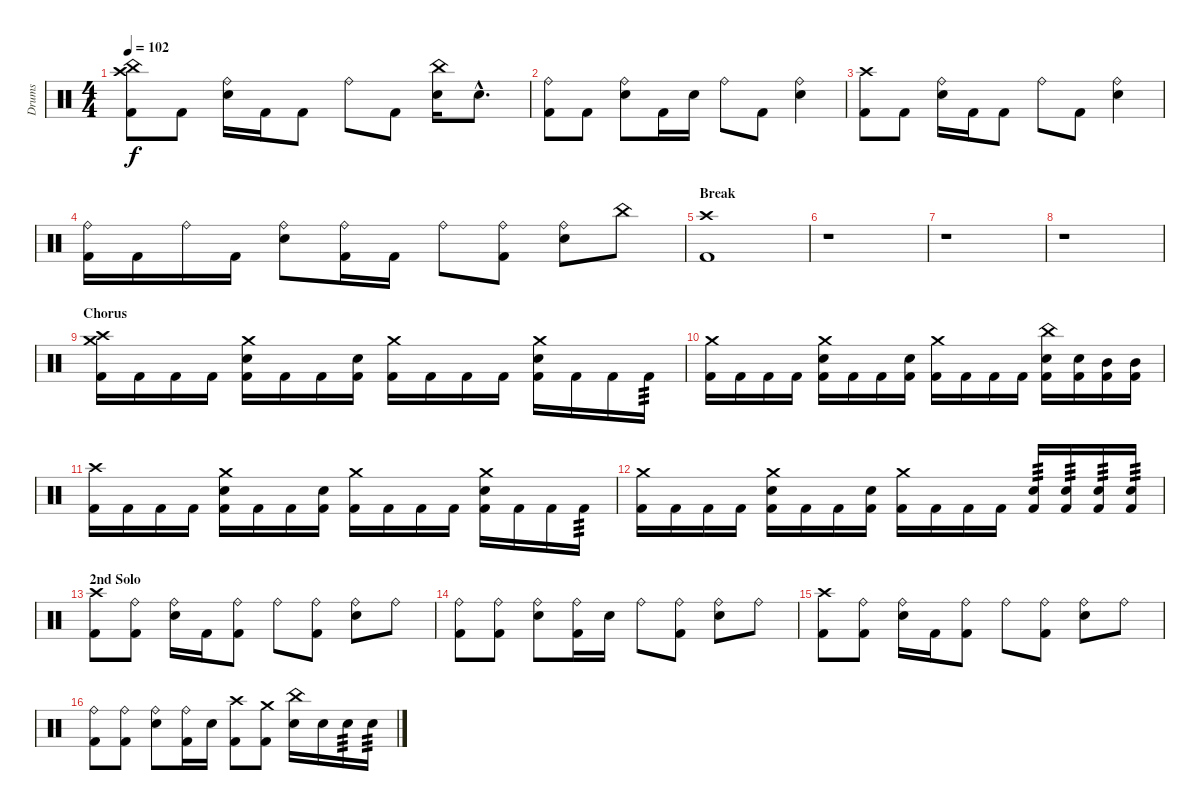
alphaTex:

\track ("Drums" "Drums") {instrument percussion}
\staff {score}
\articulation defaults
\ts (4 4)
\tempo 102
\clef neutral
\ks c
("Crash high (hit)" "China (hit)" "Kick (hit) 2").8{dy f} "Kick (hit) 2".8 ("Ride (bell)" "Snare (hit) 2").16 "Kick (hit) 2".16 "Kick (hit) 2".8 "Ride (bell)".8 "Kick (hit) 2".8 ("China (hit)" "Snare (hit) 2").16 "Snare (hit) 2"{hac}.8{d} |
("Ride (bell)" "Kick (hit) 2").8 "Kick (hit) 2".8 ("Ride (bell)" "Snare (hit) 2").8 "Kick (hit) 2".16 "Snare (hit) 2".16 "Ride (bell)".8 "Kick (hit) 2".8 ("Ride (bell)" "Snare (hit) 2").4 |
("Crash high (hit)" "Kick (hit) 2").8 "Kick (hit) 2".8 ("Ride (bell)" "Snare (hit) 2").16 "Kick (hit) 2".16 "Kick (hit) 2".8 "Ride (bell)".8 "Kick (hit) 2".8 ("Ride (bell)" "Snare (hit) 2").4 |
("Ride (bell)" "Kick (hit) 2").16 "Kick (hit) 2".16 "Ride (bell)".16 "Kick (hit) 2".16 ("Ride (bell)" "Snare (hit) 2").8 ("Ride (bell)" "Kick (hit) 2").16 "Kick (hit) 2".16 "Ride (bell)".8 ("Ride (bell)" "Kick (hit) 2").8 ("Ride (bell)" "Snare (hit) 2").8 "China (hit)".8 |
\section ("" "Break")
("Crash high (hit)" "Kick (hit) 2").1 |
r.1 |
r.1 |
r.1 |
\section ("" "Chorus")
("Crash high (hit)" "Crash medium (hit)" "Kick (hit) 2").16 "Kick (hit) 2".16 "Kick (hit) 2".16 "Kick (hit) 2".16 ("Crash medium (hit)" "Snare (hit) 2" "Kick (hit) 2").16 "Kick (hit) 2".16 "Kick (hit) 2".16 ("Snare (hit) 2" "Kick (hit) 2").16 ("Crash medium (hit)" "Kick (hit) 2").16 "Kick (hit) 2".16 "Kick (hit) 2".16 "Kick (hit) 2".16 ("Crash medium (hit)" "Snare (hit) 2" "Kick (hit) 2").16 "Kick (hit) 2".16 "Kick (hit) 2".16 "Kick (hit) 2".16{tp 3} |
("Crash medium (hit)" "Kick (hit) 2").16 "Kick (hit) 2".16 "Kick (hit) 2".16 "Kick (hit) 2".16 ("Crash medium (hit)" "Snare (hit) 2" "Kick (hit) 2").16 "Kick (hit) 2".16 "Kick (hit) 2".16 ("Snare (hit) 2" "Kick (hit) 2").16 ("Crash medium (hit)" "Kick (hit) 2").16 "Kick (hit) 2".16 "Kick (hit) 2".16 "Kick (hit) 2".16 ("China (hit)" "Snare (hit) 2" "Kick (hit) 2").16 ("Snare (hit) 2" "Kick (hit) 2").16 ("Mid Tom (hit)" "Kick (hit) 2").16 ("Mid Tom (hit)" "Kick (hit) 2").16 |
("Crash high (hit)" "Kick (hit) 2").16 "Kick (hit) 2".16 "Kick (hit) 2".16 "Kick (hit) 2".16 ("Crash medium (hit)" "Snare (hit) 2" "Kick (hit) 2").16 "Kick (hit) 2".16 "Kick (hit) 2".16 ("Snare (hit) 2" "Kick (hit) 2").16 ("Crash medium (hit)" "Kick (hit) 2").16 "Kick (hit) 2".16 "Kick (hit) 2".16 "Kick (hit) 2".16 ("Crash medium (hit)" "Snare (hit) 2" "Kick (hit) 2").16 "Kick (hit) 2".16 "Kick (hit) 2".16 "Kick (hit) 2".16{tp 3} |
("Crash medium (hit)" "Kick (hit) 2").16 "Kick (hit) 2".16 "Kick (hit) 2".16 "Kick (hit) 2".16 ("Crash medium (hit)" "Snare (hit) 2" "Kick (hit) 2").16 "Kick (hit) 2".16 "Kick (hit) 2".16 ("Snare (hit) 2" "Kick (hit) 2").16 ("Crash medium (hit)" "Kick (hit) 2").16 "Kick (hit) 2".16 "Kick (hit) 2".16 "Kick (hit) 2".16 ("Snare (hit) 2" "Kick (hit) 2").16{tp 3} ("Snare (hit) 2" "Kick (hit) 2").16{tp 3} ("Snare (hit) 2" "Kick (hit) 2").16{tp 3} ("Snare (hit) 2" "Kick (hit) 2").16{tp 3} |
\section ("" "2nd Solo")
("Crash high (hit)" "Kick (hit) 2").8{volume 13} ("Ride (bell)" "Kick (hit) 2").8 ("Ride (bell)" "Snare (hit) 2").16 "Kick (hit) 2".16 ("Ride (bell)" "Kick (hit) 2").8 "Ride (bell)".8 ("Ride (bell)" "Kick (hit) 2").8 ("Ride (bell)" "Snare (hit) 2").8 "Ride (bell)".8 |
("Ride (bell)" "Kick (hit) 2").8 ("Ride (bell)" "Kick (hit) 2").8 ("Ride (bell)" "Snare (hit) 2").8 ("Ride (bell)" "Kick (hit) 2").16 "Snare (hit) 2".16 "Ride (bell)".8 ("Ride (bell)" "Kick (hit) 2").8 ("Ride (bell)" "Snare (hit) 2").8 "Ride (bell)".8 |
("Crash high (hit)" "Kick (hit) 2").8 ("Ride (bell)" "Kick (hit) 2").8 ("Ride (bell)" "Snare (hit) 2").16 "Kick (hit) 2".16 ("Ride (bell)" "Kick (hit) 2").8 "Ride (bell)".8 ("Ride (bell)" "Kick (hit) 2").8 ("Ride (bell)" "Snare (hit) 2").8 "Ride (bell)".8 |
("Ride (bell)" "Kick (hit) 2").8 ("Ride (bell)" "Kick (hit) 2").8 ("Ride (bell)" "Snare (hit) 2").8 ("Ride (bell)" "Kick (hit) 2").16 "Snare (hit) 2".16 ("Crash high (hit)" "Kick (hit) 2").8 ("Crash medium (hit)" "Kick (hit) 2").8 ("China (hit)" "Snare (hit) 2").16 "Snare (hit) 2".16 "Snare (hit) 2".16{tp 3} "Snare (hit) 2".16{tp 3}
